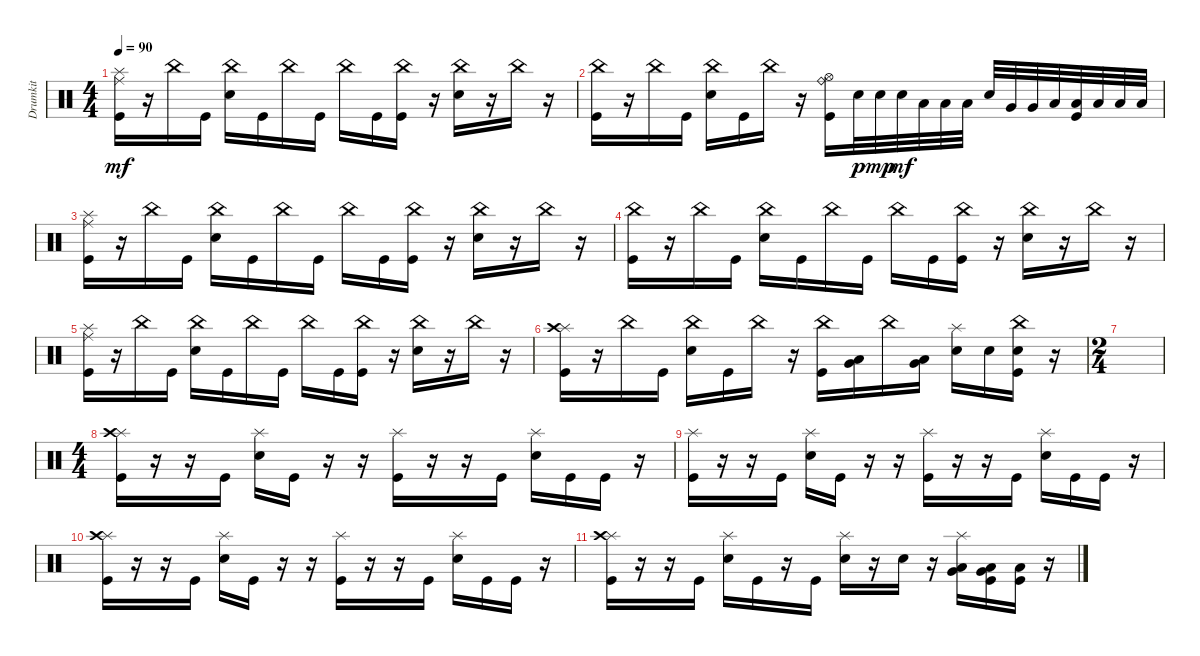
\track ("Drumkit" "Drumkit") {instrument percussion}
\staff {score}
\articulation defaults
\ts (4 4)
\tempo 90
\clef neutral
\ks c
("Kick (hit)" "Splash (hit)" "Ride (middle)").16{dy mf} r.16 "China (hit)".16 "Kick (hit)".16 ("Snare (hit) 2" "China (hit)").16 "Kick (hit)".16 "China (hit)".16 "Kick (hit)".16 "China (hit)".16 "Kick (hit)".16 ("Kick (hit)" "China (hit)").16 r.16 ("Snare (hit) 2" "China (hit)").16 r.16 "China (hit)".16 r.16 |
("Kick (hit)" "China (hit)").16 r.16 "China (hit)".16 "Kick (hit)".16 ("Snare (hit) 2" "China (hit)").16 "Kick (hit)".16 "China (hit)".16 r.16 ("Kick (hit)" "Hi-Hat (open)" "Ride (bell)").16 "Snare (hit) 2".32{dy p} "Snare (hit) 2".32{dy mp} "Snare (hit) 2".32{dy mf} "Low Tom (hit)".32 "Low Tom (hit)".32 "Low Floor Tom (hit)".32 "Snare (hit) 2".32 "Very Low Tom (hit)".32 "Very Low Tom (hit)".32 "Low Floor Tom (hit)".32 ("Low Tom (hit)" "Kick (hit)").32 "Low Floor Tom (hit)".32 "Low Floor Tom (hit)".32 "Low Floor Tom (hit)".32 |
("Kick (hit)" "Splash (hit)" "Ride (middle)").16 r.16 "China (hit)".16 "Kick (hit)".16 ("Snare (hit) 2" "China (hit)").16 "Kick (hit)".16 "China (hit)".16 "Kick (hit)".16 "China (hit)".16 "Kick (hit)".16 ("Kick (hit)" "China (hit)").16 r.16 ("Snare (hit) 2" "China (hit)").16 r.16 "China (hit)".16 r.16 |
("Kick (hit)" "China (hit)").16 r.16 "China (hit)".16 "Kick (hit)".16 ("Snare (hit) 2" "China (hit)").16 "Kick (hit)".16 "China (hit)".16 "Kick (hit)".16 "China (hit)".16 "Kick (hit)".16 ("Kick (hit)" "China (hit)").16 r.16 ("Snare (hit) 2" "China (hit)").16 r.16 "China (hit)".16 r.16 |
("Kick (hit)" "Splash (hit)" "Ride (middle)").16 r.16 "China (hit)".16 "Kick (hit)".16 ("Snare (hit) 2" "China (hit)").16 "Kick (hit)".16 "China (hit)".16 "Kick (hit)".16 "China (hit)".16 "Kick (hit)".16 ("Kick (hit)" "China (hit)").16 r.16 ("Snare (hit) 2" "China (hit)").16 r.16 "China (hit)".16 r.16 |
("Kick (hit)" "Splash (hit)" "Crash high (hit)").16 r.16 "China (hit)".16 "Kick (hit)".16 ("Snare (hit) 2" "China (hit)").16 "Kick (hit)".16 "China (hit)".16 r.16 ("Kick (hit)" "China (hit)").16 ("Low Tom (hit)" "Very Low Tom (hit)").16 "China (hit)".16 ("Very Low Tom (hit)" "Low Floor Tom (hit)").16 ("Snare (hit) 2" "Splash (hit)").16 "Snare (hit) 2".16 ("Kick (hit)" "Snare (hit) 2" "China (hit)").16 r.16 |
\ts (2 4)
|
\ts (4 4)
("Kick (hit)" "Splash (hit)" "Crash high (hit)").16 r.16 r.16 "Kick (hit)".16 ("Snare (hit) 2" "Splash (hit)").16 "Kick (hit)".16 r.16 r.16 ("Kick (hit)" "Splash (hit)").16 r.16 r.16 "Kick (hit)".16 ("Snare (hit) 2" "Splash (hit)").16 "Kick (hit)".16 "Kick (hit)".16 r.16 |
("Kick (hit)" "Splash (hit)").16 r.16 r.16 "Kick (hit)".16 ("Snare (hit) 2" "Splash (hit)").16 "Kick (hit)".16 r.16 r.16 ("Kick (hit)" "Splash (hit)").16 r.16 r.16 "Kick (hit)".16 ("Snare (hit) 2" "Splash (hit)").16 "Kick (hit)".16 "Kick (hit)".16 r.16 |
("Kick (hit)" "Splash (hit)" "Crash high (hit)").16 r.16 r.16 "Kick (hit)".16 ("Snare (hit) 2" "Splash (hit)").16 "Kick (hit)".16 r.16 r.16 ("Kick (hit)" "Splash (hit)").16 r.16 r.16 "Kick (hit)".16 ("Snare (hit) 2" "Splash (hit)").16 "Kick (hit)".16 "Kick (hit)".16 r.16 |
("Kick (hit)" "Splash (hit)" "Crash high (hit)").16 r.16 r.16 "Kick (hit)".16 ("Snare (hit) 2" "Splash (hit)").16 "Kick (hit)".16 r.16 "Kick (hit)".16 ("Splash (hit)" "Snare (hit) 2").16 r.16 "Snare (hit) 2".16 r.16 ("Splash (hit)" "Low Tom (hit)" "Very Low Tom (hit)").16 ("Low Floor Tom (hit)" "Very Low Tom (hit)" "Kick (hit)").16 ("Low Floor Tom (hit)" "Kick (hit)").16 r.16
